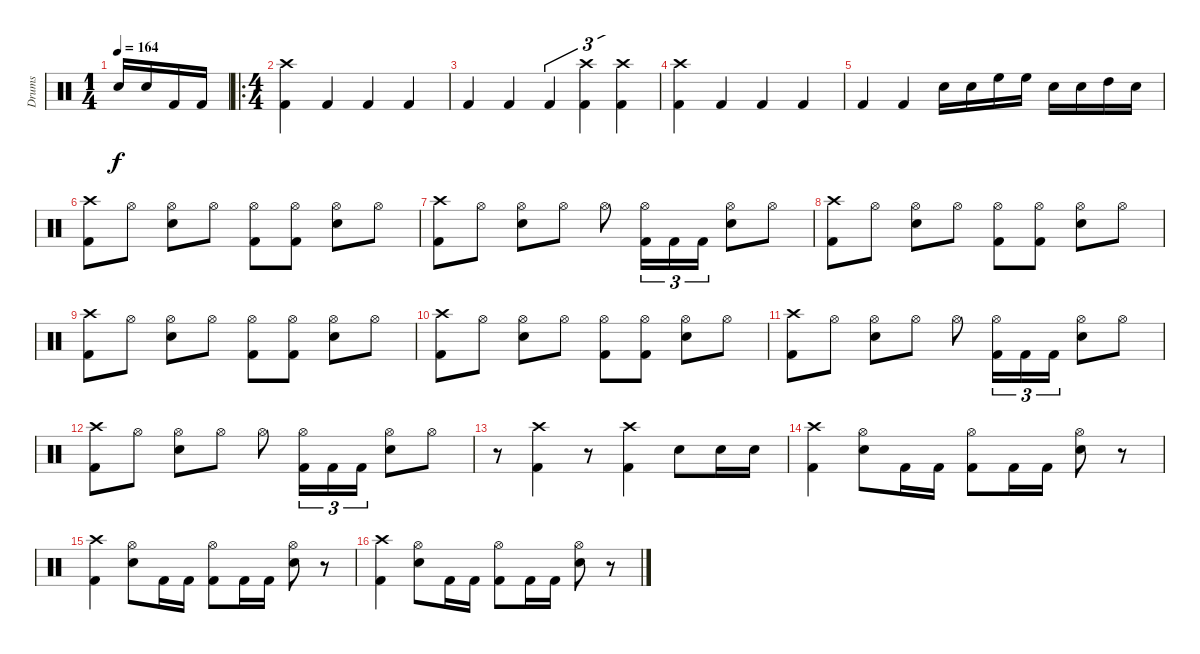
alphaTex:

\track ("Drums" "Drums") {instrument percussion}
\staff {score}
\articulation defaults
\ts (1 4)
\tempo 164
\clef neutral
\ks c "Snare (hit) 2".16{dy f} "Snare (hit) 2".16 "Kick (hit) 2".16 "Kick (hit) 2".16
|
\ro
\ts (4 4)
("Crash high (hit)" "Kick (hit) 2").4 "Kick (hit) 2".4 "Kick (hit) 2".4 "Kick (hit) 2".4 |
"Kick (hit) 2".4 "Kick (hit) 2".4 "Kick (hit) 2".4{tu (3 2)} ("Crash high (hit)" "Kick (hit) 2").4{tu (3 2)} ("Crash high (hit)" "Kick (hit) 2").4{tu (3 2)} |
("Crash high (hit)" "Kick (hit) 2").4 "Kick (hit) 2".4 "Kick (hit) 2".4 "Kick (hit) 2".4 |
"Kick (hit) 2".4 "Kick (hit) 2".4 "Snare (hit) 2".16 "Snare (hit) 2".16 "High Floor Tom (hit)".16 "High Floor Tom (hit)".16 "Snare (hit) 2".16 "Snare (hit) 2".16 "High Tom (hit)".16 "Snare (hit) 2".16 |
("Crash high (hit)" "Kick (hit) 2").8 "Hi-Hat (open)".8 ("Hi-Hat (open)" "Snare (hit) 2").8 "Hi-Hat (open)".8 ("Hi-Hat (open)" "Kick (hit) 2").8 ("Hi-Hat (open)" "Kick (hit) 2").8 ("Hi-Hat (open)" "Snare (hit) 2").8 "Hi-Hat (open)".8 |
("Crash high (hit)" "Kick (hit) 2").8 "Hi-Hat (open)".8 ("Hi-Hat (open)" "Snare (hit) 2").8 "Hi-Hat (open)".8 "Hi-Hat (open)".8 ("Hi-Hat (open)" "Kick (hit) 2").16{tu (3 2)} "Kick (hit) 2".16{tu (3 2)} "Kick (hit) 2".16{tu (3 2)} ("Hi-Hat (open)" "Snare (hit) 2").8 "Hi-Hat (open)".8 |
("Crash high (hit)" "Kick (hit) 2").8 "Hi-Hat (open)".8 ("Hi-Hat (open)" "Snare (hit) 2").8 "Hi-Hat (open)".8 ("Hi-Hat (open)" "Kick (hit) 2").8 ("Hi-Hat (open)" "Kick (hit) 2").8 ("Hi-Hat (open)" "Snare (hit) 2").8 "Hi-Hat (open)".8 |
("Crash high (hit)" "Kick (hit) 2").8 "Hi-Hat (open)".8 ("Hi-Hat (open)" "Snare (hit) 2").8 "Hi-Hat (open)".8 ("Hi-Hat (open)" "Kick (hit) 2").8 ("Hi-Hat (open)" "Kick (hit) 2").8 ("Hi-Hat (open)" "Snare (hit) 2").8 "Hi-Hat (open)".8 |
("Crash high (hit)" "Kick (hit) 2").8 "Hi-Hat (open)".8 ("Hi-Hat (open)" "Snare (hit) 2").8 "Hi-Hat (open)".8 ("Hi-Hat (open)" "Kick (hit) 2").8 ("Hi-Hat (open)" "Kick (hit) 2").8 ("Hi-Hat (open)" "Snare (hit) 2").8 "Hi-Hat (open)".8 |
("Crash high (hit)" "Kick (hit) 2").8 "Hi-Hat (open)".8 ("Hi-Hat (open)" "Snare (hit) 2").8 "Hi-Hat (open)".8 "Hi-Hat (open)".8 ("Hi-Hat (open)" "Kick (hit) 2").16{tu (3 2)} "Kick (hit) 2".16{tu (3 2)} "Kick (hit) 2".16{tu (3 2)} ("Hi-Hat (open)" "Snare (hit) 2").8 "Hi-Hat (open)".8 |
("Crash high (hit)" "Kick (hit) 2").8 "Hi-Hat (open)".8 ("Hi-Hat (open)" "Snare (hit) 2").8 "Hi-Hat (open)".8 "Hi-Hat (open)".8 ("Hi-Hat (open)" "Kick (hit) 2").16{tu (3 2)} "Kick (hit) 2".16{tu (3 2)} "Kick (hit) 2".16{tu (3 2)} ("Hi-Hat (open)" "Snare (hit) 2").8 "Hi-Hat (open)".8 |
r.8 ("Crash high (hit)" "Kick (hit) 2").4 r.8 ("Crash high (hit)" "Kick (hit) 2").4 "Snare (hit) 2".8 "Snare (hit) 2".16 "Snare (hit) 2".16 |
("Crash high (hit)" "Kick (hit) 2").4 ("Hi-Hat (open)" "Snare (hit) 2").8 "Kick (hit) 2".16 "Kick (hit) 2".16 ("Hi-Hat (open)" "Kick (hit) 2").8 "Kick (hit) 2".16 "Kick (hit) 2".16 ("Hi-Hat (open)" "Snare (hit) 2").8 r.8 |
("Crash high (hit)" "Kick (hit) 2").4 ("Hi-Hat (open)" "Snare (hit) 2").8 "Kick (hit) 2".16 "Kick (hit) 2".16 ("Hi-Hat (open)" "Kick (hit) 2").8 "Kick (hit) 2".16 "Kick (hit) 2".16 ("Hi-Hat (open)" "Snare (hit) 2").8 r.8 |
("Crash high (hit)" "Kick (hit) 2").4 ("Hi-Hat (open)" "Snare (hit) 2").8 "Kick (hit) 2".16 "Kick (hit) 2".16 ("Hi-Hat (open)" "Kick (hit) 2").8 "Kick (hit) 2".16 "Kick (hit) 2".16 ("Hi-Hat (open)" "Snare (hit) 2").8 r.8
